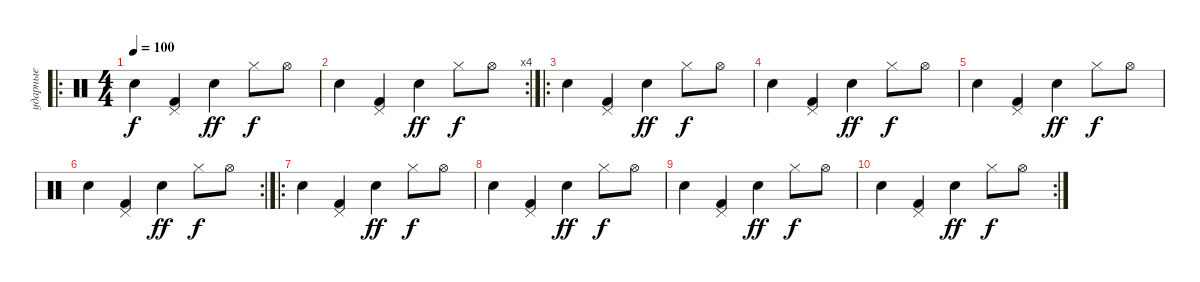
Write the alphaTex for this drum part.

\track ("ударные" "ударные") {instrument percussion}
\staff {score}
\articulation defaults
\ro
\ts (4 4)
\tempo 100
\clef neutral
\ks c "Electric Snare (hit)".4{dy f}
("Pedal Hi-Hat (hit)" "Kick (hit) 2").4 "Electric Snare (hit)".4{dy ff} "Hi-Hat (closed)".8{dy f} "Hi-Hat (open)".8 |
\rc 4 "Electric Snare (hit)".4
("Pedal Hi-Hat (hit)" "Kick (hit) 2").4 "Electric Snare (hit)".4{dy ff} "Hi-Hat (closed)".8{dy f} "Hi-Hat (open)".8 |
\ro "Electric Snare (hit)".4
("Pedal Hi-Hat (hit)" "Kick (hit) 2").4 "Electric Snare (hit)".4{dy ff} "Hi-Hat (closed)".8{dy f} "Hi-Hat (open)".8 |
"Electric Snare (hit)".4 ("Pedal Hi-Hat (hit)" "Kick (hit) 2").4 "Electric Snare (hit)".4{dy ff} "Hi-Hat (closed)".8{dy f} "Hi-Hat (open)".8 |
"Electric Snare (hit)".4 ("Pedal Hi-Hat (hit)" "Kick (hit) 2").4 "Electric Snare (hit)".4{dy ff} "Hi-Hat (closed)".8{dy f} "Hi-Hat (open)".8 |
\rc 2 "Electric Snare (hit)".4
("Pedal Hi-Hat (hit)" "Kick (hit) 2").4 "Electric Snare (hit)".4{dy ff} "Hi-Hat (closed)".8{dy f} "Hi-Hat (open)".8 |
\ro "Electric Snare (hit)".4
("Pedal Hi-Hat (hit)" "Kick (hit) 2").4 "Electric Snare (hit)".4{dy ff} "Hi-Hat (closed)".8{dy f} "Hi-Hat (open)".8 |
"Electric Snare (hit)".4 ("Pedal Hi-Hat (hit)" "Kick (hit) 2").4 "Electric Snare (hit)".4{dy ff} "Hi-Hat (closed)".8{dy f} "Hi-Hat (open)".8 |
"Electric Snare (hit)".4 ("Pedal Hi-Hat (hit)" "Kick (hit) 2").4 "Electric Snare (hit)".4{dy ff} "Hi-Hat (closed)".8{dy f} "Hi-Hat (open)".8 |
\rc 2 "Electric Snare (hit)".4
("Pedal Hi-Hat (hit)" "Kick (hit) 2").4 "Electric Snare (hit)".4{dy ff} "Hi-Hat (closed)".8{dy f} "Hi-Hat (open)".8
